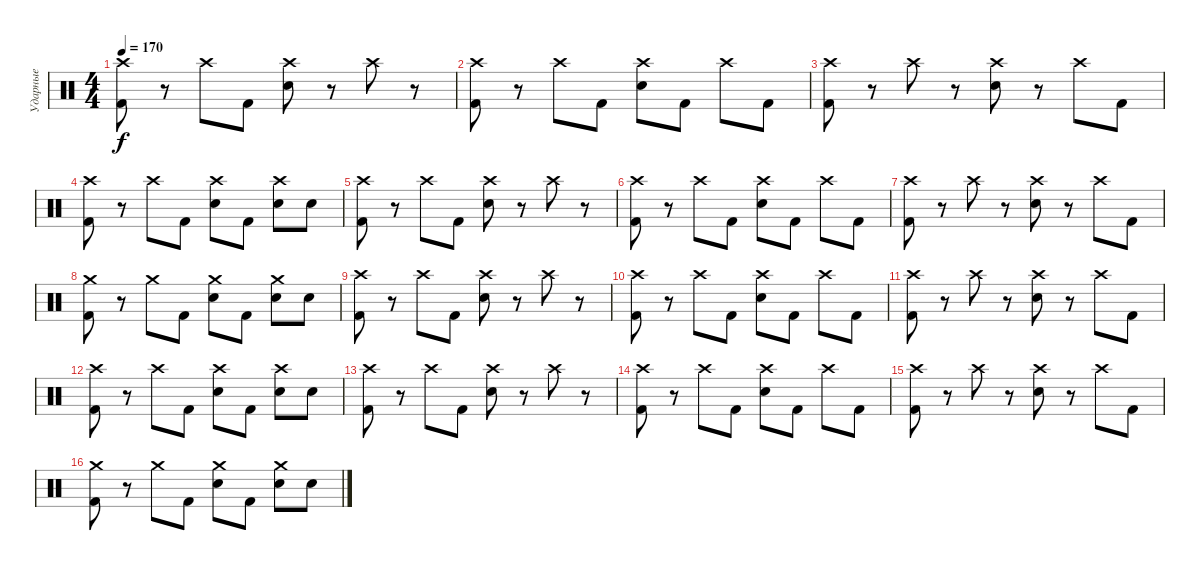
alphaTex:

\track ("Ударные" "Ударные") {instrument percussion}
\staff {score}
\articulation defaults
\ts (4 4)
\tempo 170
\clef neutral
\ks c
("Crash high (hit)" "Kick (hit) 2").8{dy f} r.8 "Crash high (hit)".8 "Kick (hit) 2".8 ("Crash high (hit)" "Snare (hit) 2").8 r.8 "Crash high (hit)".8 r.8 |
("Crash high (hit)" "Kick (hit) 2").8 r.8 "Crash high (hit)".8 "Kick (hit) 2".8 ("Crash high (hit)" "Snare (hit) 2").8 "Kick (hit) 2".8 "Crash high (hit)".8 "Kick (hit) 2".8 |
("Crash high (hit)" "Kick (hit) 2").8 r.8 "Crash high (hit)".8 r.8 ("Crash high (hit)" "Snare (hit) 2").8 r.8 "Crash high (hit)".8 "Kick (hit) 2".8 |
("Crash high (hit)" "Kick (hit) 2").8 r.8 "Crash high (hit)".8 "Kick (hit) 2".8 ("Crash high (hit)" "Snare (hit) 2").8 "Kick (hit) 2".8 ("Crash high (hit)" "Snare (hit) 2").8 "Snare (hit) 2".8 |
("Crash high (hit)" "Kick (hit) 2").8 r.8 "Crash high (hit)".8 "Kick (hit) 2".8 ("Crash high (hit)" "Snare (hit) 2").8 r.8 "Crash high (hit)".8 r.8 |
("Crash high (hit)" "Kick (hit) 2").8 r.8 "Crash high (hit)".8 "Kick (hit) 2".8 ("Crash high (hit)" "Snare (hit) 2").8 "Kick (hit) 2".8 "Crash high (hit)".8 "Kick (hit) 2".8 |
("Crash high (hit)" "Kick (hit) 2").8 r.8 "Crash high (hit)".8 r.8 ("Crash high (hit)" "Snare (hit) 2").8 r.8 "Crash high (hit)".8 "Kick (hit) 2".8 |
("Crash medium (hit)" "Kick (hit) 2").8 r.8 "Crash medium (hit)".8 "Kick (hit) 2".8 ("Crash medium (hit)" "Snare (hit) 2").8 "Kick (hit) 2".8 ("Crash medium (hit)" "Snare (hit) 2").8 "Snare (hit) 2".8 |
("Crash high (hit)" "Kick (hit) 2").8 r.8 "Crash high (hit)".8 "Kick (hit) 2".8 ("Crash high (hit)" "Snare (hit) 2").8 r.8 "Crash high (hit)".8 r.8 |
("Crash high (hit)" "Kick (hit) 2").8 r.8 "Crash high (hit)".8 "Kick (hit) 2".8 ("Crash high (hit)" "Snare (hit) 2").8 "Kick (hit) 2".8 "Crash high (hit)".8 "Kick (hit) 2".8 |
("Crash high (hit)" "Kick (hit) 2").8 r.8 "Crash high (hit)".8 r.8 ("Crash high (hit)" "Snare (hit) 2").8 r.8 "Crash high (hit)".8 "Kick (hit) 2".8 |
("Crash high (hit)" "Kick (hit) 2").8 r.8 "Crash high (hit)".8 "Kick (hit) 2".8 ("Crash high (hit)" "Snare (hit) 2").8 "Kick (hit) 2".8 ("Crash high (hit)" "Snare (hit) 2").8 "Snare (hit) 2".8 |
("Crash high (hit)" "Kick (hit) 2").8 r.8 "Crash high (hit)".8 "Kick (hit) 2".8 ("Crash high (hit)" "Snare (hit) 2").8 r.8 "Crash high (hit)".8 r.8 |
("Crash high (hit)" "Kick (hit) 2").8 r.8 "Crash high (hit)".8 "Kick (hit) 2".8 ("Crash high (hit)" "Snare (hit) 2").8 "Kick (hit) 2".8 "Crash high (hit)".8 "Kick (hit) 2".8 |
("Crash high (hit)" "Kick (hit) 2").8 r.8 "Crash high (hit)".8 r.8 ("Crash high (hit)" "Snare (hit) 2").8 r.8 "Crash high (hit)".8 "Kick (hit) 2".8 |
("Crash medium (hit)" "Kick (hit) 2").8 r.8 "Crash medium (hit)".8 "Kick (hit) 2".8 ("Crash medium (hit)" "Snare (hit) 2").8 "Kick (hit) 2".8 ("Crash medium (hit)" "Snare (hit) 2").8 "Snare (hit) 2".8
